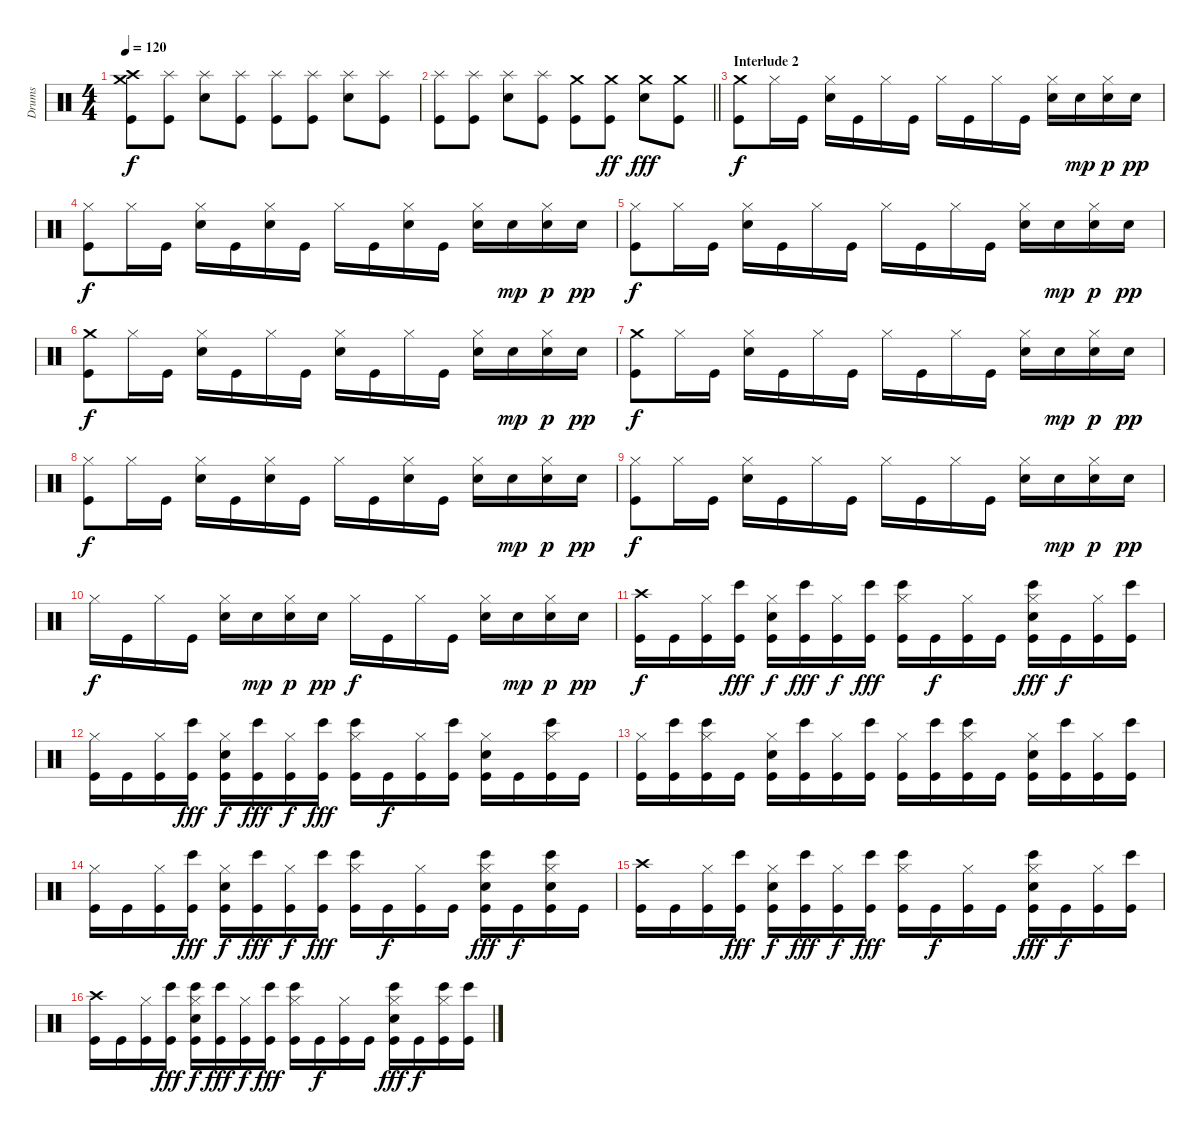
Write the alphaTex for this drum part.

\track ("Drums" "Drums") {instrument percussion}
\staff {score}
\articulation defaults
\ts (4 4)
\tempo 120
\clef neutral
\ks c
("Crash medium (hit)" "Crash high (hit)" "Kick (hit)").8{dy f} ("Splash (hit)" "Kick (hit)").8 ("Splash (hit)" "Electric Snare (hit)").8 ("Splash (hit)" "Kick (hit)").8 ("Splash (hit)" "Kick (hit)").8 ("Splash (hit)" "Kick (hit)").8 ("Splash (hit)" "Electric Snare (hit)").8 ("Splash (hit)" "Kick (hit)").8 |
\barLineRight lightlight
("Splash (hit)" "Kick (hit)").8 ("Splash (hit)" "Kick (hit)").8 ("Splash (hit)" "Electric Snare (hit)").8 ("Splash (hit)" "Kick (hit)").8 ("Crash medium (hit)" "Kick (hit)").8 ("Crash medium (hit)" "Kick (hit)").8{dy ff} ("Crash medium (hit)" "Electric Snare (hit)").8{dy fff} ("Crash medium (hit)" "Kick (hit)").8 |
\section ("" "Interlude 2")
("Crash medium (hit)" "Kick (hit)").8{dy f} "Hi-Hat (closed)".16 "Kick (hit)".16 ("Hi-Hat (closed)" "Electric Snare (hit)").16 "Kick (hit)".16 "Hi-Hat (closed)".16 "Kick (hit)".16 "Hi-Hat (closed)".16 "Kick (hit)".16 "Hi-Hat (closed)".16 "Kick (hit)".16 ("Hi-Hat (closed)" "Electric Snare (hit)").16 "Electric Snare (hit)".16{dy mp} ("Hi-Hat (closed)" "Electric Snare (hit)").16{dy p} "Electric Snare (hit)".16{dy pp} |
("Hi-Hat (closed)" "Kick (hit)").8{dy f} "Hi-Hat (closed)".16 "Kick (hit)".16 ("Hi-Hat (closed)" "Electric Snare (hit)").16 "Kick (hit)".16 ("Hi-Hat (closed)" "Electric Snare (hit)").16 "Kick (hit)".16 "Hi-Hat (closed)".16 "Kick (hit)".16 ("Hi-Hat (closed)" "Electric Snare (hit)").16 "Kick (hit)".16 ("Hi-Hat (closed)" "Electric Snare (hit)").16 "Electric Snare (hit)".16{dy mp} ("Hi-Hat (closed)" "Electric Snare (hit)").16{dy p} "Electric Snare (hit)".16{dy pp} |
("Hi-Hat (closed)" "Kick (hit)").8{dy f} "Hi-Hat (closed)".16 "Kick (hit)".16 ("Hi-Hat (closed)" "Electric Snare (hit)").16 "Kick (hit)".16 "Hi-Hat (closed)".16 "Kick (hit)".16 "Hi-Hat (closed)".16 "Kick (hit)".16 "Hi-Hat (closed)".16 "Kick (hit)".16 ("Hi-Hat (closed)" "Electric Snare (hit)").16 "Electric Snare (hit)".16{dy mp} ("Hi-Hat (closed)" "Electric Snare (hit)").16{dy p} "Electric Snare (hit)".16{dy pp} |
("Crash medium (hit)" "Kick (hit)").8{dy f} "Hi-Hat (closed)".16 "Kick (hit)".16 ("Hi-Hat (closed)" "Electric Snare (hit)").16 "Kick (hit)".16 "Hi-Hat (closed)".16 "Kick (hit)".16 ("Hi-Hat (closed)" "Electric Snare (hit)").16 "Kick (hit)".16 "Hi-Hat (closed)".16 "Kick (hit)".16 ("Hi-Hat (closed)" "Electric Snare (hit)").16 "Electric Snare (hit)".16{dy mp} ("Hi-Hat (closed)" "Electric Snare (hit)").16{dy p} "Electric Snare (hit)".16{dy pp} |
("Crash medium (hit)" "Kick (hit)").8{dy f} "Hi-Hat (closed)".16 "Kick (hit)".16 ("Hi-Hat (closed)" "Electric Snare (hit)").16 "Kick (hit)".16 "Hi-Hat (closed)".16 "Kick (hit)".16 "Hi-Hat (closed)".16 "Kick (hit)".16 "Hi-Hat (closed)".16 "Kick (hit)".16 ("Hi-Hat (closed)" "Electric Snare (hit)").16 "Electric Snare (hit)".16{dy mp} ("Hi-Hat (closed)" "Electric Snare (hit)").16{dy p} "Electric Snare (hit)".16{dy pp} |
("Hi-Hat (closed)" "Kick (hit)").8{dy f} "Hi-Hat (closed)".16 "Kick (hit)".16 ("Hi-Hat (closed)" "Electric Snare (hit)").16 "Kick (hit)".16 ("Hi-Hat (closed)" "Electric Snare (hit)").16 "Kick (hit)".16 "Hi-Hat (closed)".16 "Kick (hit)".16 ("Hi-Hat (closed)" "Electric Snare (hit)").16 "Kick (hit)".16 ("Hi-Hat (closed)" "Electric Snare (hit)").16 "Electric Snare (hit)".16{dy mp} ("Hi-Hat (closed)" "Electric Snare (hit)").16{dy p} "Electric Snare (hit)".16{dy pp} |
("Hi-Hat (closed)" "Kick (hit)").8{dy f} "Hi-Hat (closed)".16 "Kick (hit)".16 ("Hi-Hat (closed)" "Electric Snare (hit)").16 "Kick (hit)".16 "Hi-Hat (closed)".16 "Kick (hit)".16 "Hi-Hat (closed)".16 "Kick (hit)".16 "Hi-Hat (closed)".16 "Kick (hit)".16 ("Hi-Hat (closed)" "Electric Snare (hit)").16 "Electric Snare (hit)".16{dy mp} ("Hi-Hat (closed)" "Electric Snare (hit)").16{dy p} "Electric Snare (hit)".16{dy pp} |
"Hi-Hat (closed)".16{dy f} "Kick (hit)".16 "Hi-Hat (closed)".16 "Kick (hit)".16 ("Hi-Hat (closed)" "Electric Snare (hit)").16 "Electric Snare (hit)".16{dy mp} ("Hi-Hat (closed)" "Electric Snare (hit)").16{dy p} "Electric Snare (hit)".16{dy pp} "Hi-Hat (closed)".16{dy f} "Kick (hit)".16 "Hi-Hat (closed)".16 "Kick (hit)".16 ("Hi-Hat (closed)" "Electric Snare (hit)").16 "Electric Snare (hit)".16{dy mp} ("Hi-Hat (closed)" "Electric Snare (hit)").16{dy p} "Electric Snare (hit)".16{dy pp} |
("Crash high (hit)" "Kick (hit)").16{dy f} "Kick (hit)".16 ("Hi-Hat (closed)" "Kick (hit)").16 ("Bongo High (hit)" "Kick (hit)").16{dy fff} ("Hi-Hat (closed)" "Electric Snare (hit)" "Kick (hit)").16{dy f} ("Bongo High (hit)" "Kick (hit)").16{dy fff} ("Hi-Hat (closed)" "Kick (hit)").16{dy f} ("Bongo High (hit)" "Kick (hit)").16{dy fff} ("Hi-Hat (closed)" "Bongo High (hit)" "Kick (hit)").16 "Kick (hit)".16{dy f} ("Hi-Hat (closed)" "Kick (hit)").16 "Kick (hit)".16 ("Hi-Hat (closed)" "Electric Snare (hit)" "Bongo High (hit)" "Kick (hit)").16{dy fff} "Kick (hit)".16{dy f} ("Hi-Hat (closed)" "Kick (hit)").16 ("Bongo High (hit)" "Kick (hit)").16 |
("Hi-Hat (closed)" "Kick (hit)").16 "Kick (hit)".16 ("Hi-Hat (closed)" "Kick (hit)").16 ("Bongo High (hit)" "Kick (hit)").16{dy fff} ("Hi-Hat (closed)" "Electric Snare (hit)" "Kick (hit)").16{dy f} ("Bongo High (hit)" "Kick (hit)").16{dy fff} ("Hi-Hat (closed)" "Kick (hit)").16{dy f} ("Bongo High (hit)" "Kick (hit)").16{dy fff} ("Hi-Hat (closed)" "Bongo High (hit)" "Kick (hit)").16 "Kick (hit)".16{dy f} ("Hi-Hat (closed)" "Kick (hit)").16 ("Bongo High (hit)" "Kick (hit)").16 ("Hi-Hat (closed)" "Electric Snare (hit)" "Kick (hit)").16 "Kick (hit)".16 ("Hi-Hat (closed)" "Bongo High (hit)" "Kick (hit)").16 "Kick (hit)".16 |
("Hi-Hat (closed)" "Kick (hit)").16 ("Bongo High (hit)" "Kick (hit)").16 ("Hi-Hat (closed)" "Bongo High (hit)" "Kick (hit)").16 "Kick (hit)".16 ("Hi-Hat (closed)" "Electric Snare (hit)" "Kick (hit)").16 ("Bongo High (hit)" "Kick (hit)").16 ("Hi-Hat (closed)" "Kick (hit)").16 ("Bongo High (hit)" "Kick (hit)").16 ("Hi-Hat (closed)" "Kick (hit)").16 ("Bongo High (hit)" "Kick (hit)").16 ("Hi-Hat (closed)" "Bongo High (hit)" "Kick (hit)").16 "Kick (hit)".16 ("Hi-Hat (closed)" "Electric Snare (hit)" "Kick (hit)").16 ("Bongo High (hit)" "Kick (hit)").16 ("Hi-Hat (closed)" "Kick (hit)").16 ("Bongo High (hit)" "Kick (hit)").16 |
("Hi-Hat (closed)" "Kick (hit)").16 "Kick (hit)".16 ("Hi-Hat (closed)" "Kick (hit)").16 ("Bongo High (hit)" "Kick (hit)").16{dy fff} ("Hi-Hat (closed)" "Electric Snare (hit)" "Kick (hit)").16{dy f} ("Bongo High (hit)" "Kick (hit)").16{dy fff} ("Hi-Hat (closed)" "Kick (hit)").16{dy f} ("Bongo High (hit)" "Kick (hit)").16{dy fff} ("Hi-Hat (closed)" "Bongo High (hit)" "Kick (hit)").16 "Kick (hit)".16{dy f} ("Hi-Hat (closed)" "Kick (hit)").16 "Kick (hit)".16 ("Hi-Hat (closed)" "Electric Snare (hit)" "Bongo High (hit)" "Kick (hit)").16{dy fff} "Kick (hit)".16{dy f} ("Hi-Hat (closed)" "Electric Snare (hit)" "Bongo High (hit)" "Kick (hit)").16 "Kick (hit)".16 |
("Crash high (hit)" "Kick (hit)").16 "Kick (hit)".16 ("Hi-Hat (closed)" "Kick (hit)").16 ("Bongo High (hit)" "Kick (hit)").16{dy fff} ("Hi-Hat (closed)" "Electric Snare (hit)" "Kick (hit)").16{dy f} ("Bongo High (hit)" "Kick (hit)").16{dy fff} ("Hi-Hat (closed)" "Kick (hit)").16{dy f} ("Bongo High (hit)" "Kick (hit)").16{dy fff} ("Hi-Hat (closed)" "Bongo High (hit)" "Kick (hit)").16 "Kick (hit)".16{dy f} ("Hi-Hat (closed)" "Kick (hit)").16 "Kick (hit)".16 ("Hi-Hat (closed)" "Electric Snare (hit)" "Bongo High (hit)" "Kick (hit)").16{dy fff} "Kick (hit)".16{dy f} ("Hi-Hat (closed)" "Kick (hit)").16 ("Bongo High (hit)" "Kick (hit)").16 |
("Crash high (hit)" "Kick (hit)").16 "Kick (hit)".16 ("Hi-Hat (closed)" "Kick (hit)").16 ("Bongo High (hit)" "Kick (hit)").16{dy fff} ("Hi-Hat (closed)" "Electric Snare (hit)" "Bongo High (hit)" "Kick (hit)").16{dy f} ("Bongo High (hit)" "Kick (hit)").16{dy fff} ("Hi-Hat (closed)" "Kick (hit)").16{dy f} ("Bongo High (hit)" "Kick (hit)").16{dy fff} ("Hi-Hat (closed)" "Bongo High (hit)" "Kick (hit)").16 "Kick (hit)".16{dy f} ("Hi-Hat (closed)" "Kick (hit)").16 "Kick (hit)".16 ("Hi-Hat (closed)" "Electric Snare (hit)" "Bongo High (hit)" "Kick (hit)").16{dy fff} "Kick (hit)".16{dy f} ("Hi-Hat (closed)" "Bongo High (hit)" "Kick (hit)").16 ("Bongo High (hit)" "Kick (hit)").16
